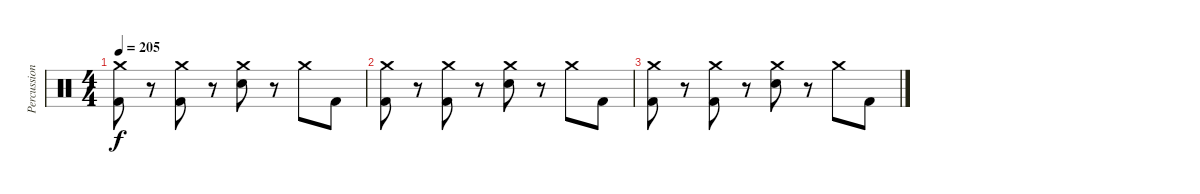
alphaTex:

\track ("Percussion" "Percussion") {instrument percussion}
\staff {score}
\articulation defaults
\ts (4 4)
\tempo 205
\clef neutral
\ks c
("Crash medium (hit)" "Kick (hit) 2").8{dy f} r.8 ("Crash medium (hit)" "Kick (hit) 2").8 r.8 ("Crash medium (hit)" "Electric Snare (hit)").8 r.8 "Crash medium (hit)".8 "Kick (hit) 2".8 |
("Crash medium (hit)" "Kick (hit) 2").8 r.8 ("Crash medium (hit)" "Kick (hit) 2").8 r.8 ("Crash medium (hit)" "Electric Snare (hit)").8 r.8 "Crash medium (hit)".8 "Kick (hit) 2".8 |
("Crash medium (hit)" "Kick (hit) 2").8 r.8 ("Crash medium (hit)" "Kick (hit) 2").8 r.8 ("Crash medium (hit)" "Electric Snare (hit)").8 r.8 "Crash medium (hit)".8 "Kick (hit) 2".8
